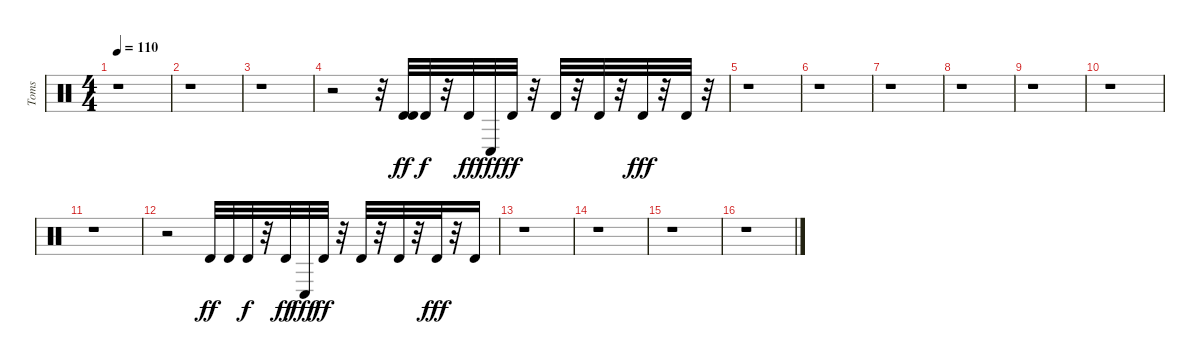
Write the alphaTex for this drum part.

\track ("Toms" "Toms") {instrument percussion}
\staff {score}
\articulation defaults
\ts (4 4)
\tempo 110
\clef neutral
\ks c
r.1{dy fff} |
r.1 |
r.1 |
r.2 r.32 ("Timbale high (hit)" "Timbale high (hit)").32{dy ff} "Timbale high (hit)".32{dy f} r.32 "Timbale high (hit)".32{dy ff} "Conga low (hit)".32{dy fff} "Timbale high (hit)".32{dy ff} r.32 "Timbale high (hit)".32 r.32 "Timbale high (hit)".32 r.32 "Timbale high (hit)".32{dy fff} r.32 "Timbale high (hit)".32 r.32 |
r.1 |
r.1 |
r.1 |
r.1 |
r.1 |
r.1 |
r.1 |
r.2 "Timbale high (hit)".32{dy ff} "Timbale high (hit)".32 "Timbale high (hit)".32{dy f} r.32 "Timbale high (hit)".32{dy ff} "Conga low (hit)".32{dy fff} "Timbale high (hit)".32{dy ff} r.32 "Timbale high (hit)".32 r.32 "Timbale high (hit)".32 r.32 "Timbale high (hit)".32{dy fff} r.32 "Timbale high (hit)".16 |
r.1 |
r.1 |
r.1 |
r.1
